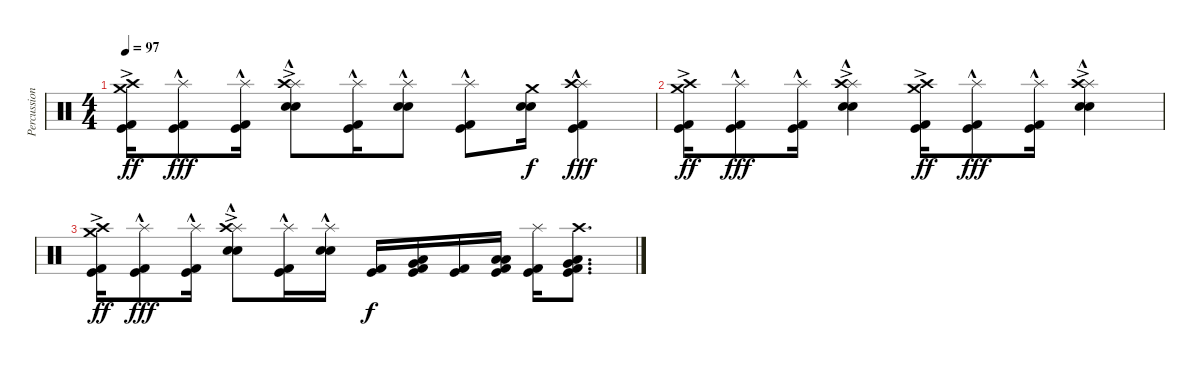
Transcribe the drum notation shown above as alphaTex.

\track ("Percussion" "Percussion") {instrument percussion}
\staff {score}
\articulation defaults
\ts (4 4)
\tempo 97
\clef neutral
\ks c
("Kick (hit) 2" "Kick (hit)" "Crash high (hit)"{ac} "Crash medium (hit)"{ac}).16{dy ff} ("Kick (hit) 2" "Kick (hit)" "Splash (hit)"{hac}).8{dy fff} ("Kick (hit) 2" "Kick (hit)" "Splash (hit)"{hac}).16 ("Electric Snare (hit)" "Snare (hit) 2" "Splash (hit)"{ac} "Crash high (hit)"{hac}).8 ("Kick (hit) 2" "Kick (hit)" "Splash (hit)"{hac}).16 ("Electric Snare (hit)" "Snare (hit) 2" "Splash (hit)"{hac}).8 ("Kick (hit) 2" "Kick (hit)" "Splash (hit)"{hac}).8 ("Electric Snare (hit)" "Snare (hit) 2" "Crash medium (hit)").16{dy f} ("Kick (hit) 2" "Kick (hit)" "Splash (hit)"{hac} "Crash high (hit)").4{dy fff} |
("Kick (hit) 2" "Kick (hit)" "Crash high (hit)"{ac} "Crash medium (hit)"{ac}).16{dy ff} ("Kick (hit) 2" "Kick (hit)" "Splash (hit)"{hac}).8{dy fff} ("Kick (hit) 2" "Kick (hit)" "Splash (hit)"{hac}).16 ("Electric Snare (hit)" "Snare (hit) 2" "Splash (hit)"{ac} "Crash high (hit)"{hac}).4 ("Kick (hit) 2" "Kick (hit)" "Crash high (hit)"{ac} "Crash medium (hit)"{ac}).16{dy ff} ("Kick (hit) 2" "Kick (hit)" "Splash (hit)"{hac}).8{dy fff} ("Kick (hit) 2" "Kick (hit)" "Splash (hit)"{hac}).16 ("Electric Snare (hit)" "Snare (hit) 2" "Splash (hit)"{ac} "Crash high (hit)"{hac}).4 |
("Kick (hit) 2" "Kick (hit)" "Crash high (hit)"{ac} "Crash medium (hit)"{ac}).16{dy ff} ("Kick (hit) 2" "Kick (hit)" "Splash (hit)"{hac}).8{dy fff} ("Kick (hit) 2" "Kick (hit)" "Splash (hit)"{hac}).16 ("Electric Snare (hit)" "Snare (hit) 2" "Splash (hit)"{ac} "Crash high (hit)"{hac}).8 ("Kick (hit) 2" "Kick (hit)" "Splash (hit)"{hac}).16 ("Electric Snare (hit)" "Snare (hit) 2" "Splash (hit)"{hac}).16 ("Kick (hit) 2" "Kick (hit)").16{dy f} ("Kick (hit) 2" "Kick (hit)" "Low Tom (hit)" "Very Low Tom (hit)").16 ("Kick (hit) 2" "Kick (hit)").16 ("Kick (hit) 2" "Kick (hit)" "Low Tom (hit)" "Low Floor Tom (hit)").16 ("Kick (hit) 2" "Kick (hit)" "Splash (hit)").16 ("Kick (hit) 2" "Kick (hit)" "Very Low Tom (hit)" "Low Floor Tom (hit)" "Crash high (hit)").8{d}
